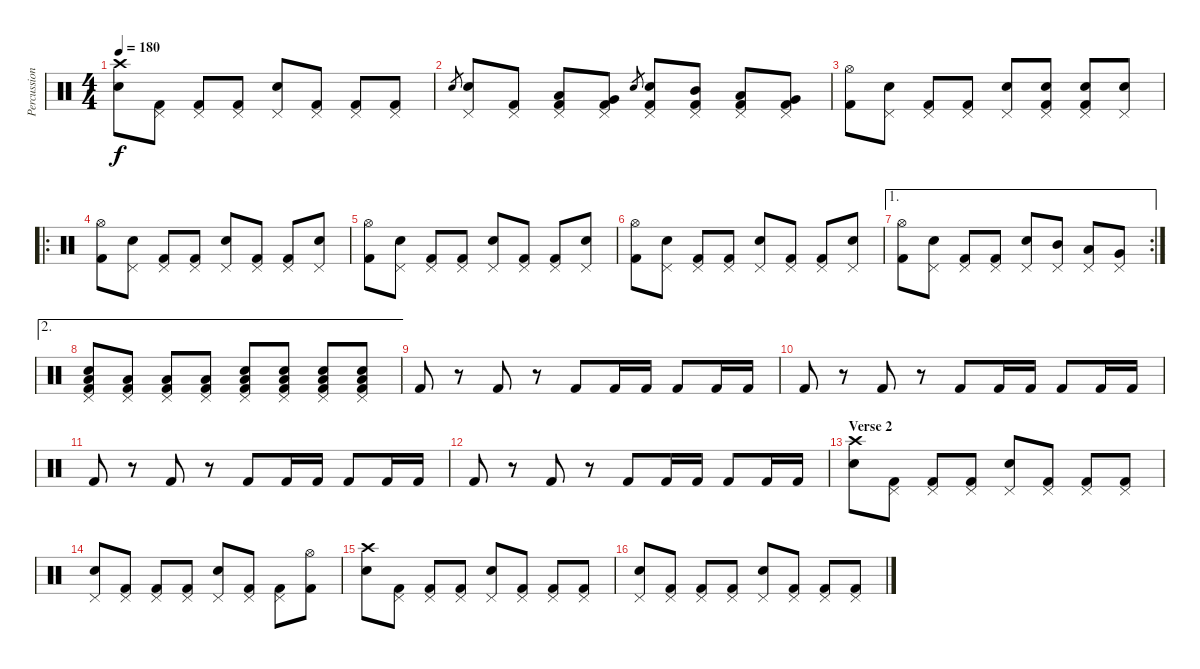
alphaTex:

\track ("Percussion" "Percussion") {instrument percussion}
\staff {score}
\articulation defaults
\ts (4 4)
\tempo 180
\clef neutral
\ks c
("Crash high (hit)" "Electric Snare (hit)").8{dy f} ("Pedal Hi-Hat (hit)" "Kick (hit) 2").8 ("Pedal Hi-Hat (hit)" "Kick (hit) 2").8 ("Pedal Hi-Hat (hit)" "Kick (hit) 2").8 ("Pedal Hi-Hat (hit)" "Electric Snare (hit)").8 ("Pedal Hi-Hat (hit)" "Kick (hit) 2").8 ("Pedal Hi-Hat (hit)" "Kick (hit) 2").8 ("Pedal Hi-Hat (hit)" "Kick (hit) 2").8 |
"Electric Snare (hit)".8{gr} ("Pedal Hi-Hat (hit)" "Electric Snare (hit)").8 ("Pedal Hi-Hat (hit)" "Kick (hit) 2").8 ("Pedal Hi-Hat (hit)" "Low Tom (hit)" "Kick (hit) 2").8 ("Pedal Hi-Hat (hit)" "Very Low Tom (hit)" "Kick (hit) 2").8 "Electric Snare (hit)".8{gr} ("Pedal Hi-Hat (hit)" "Electric Snare (hit)" "Kick (hit) 2").8 ("Pedal Hi-Hat (hit)" "Mid Tom (hit)" "Kick (hit) 2").8 ("Pedal Hi-Hat (hit)" "Low Tom (hit)" "Kick (hit) 2").8 ("Pedal Hi-Hat (hit)" "Very Low Tom (hit)" "Kick (hit) 2").8 |
("Hi-Hat (open)" "Kick (hit) 2").8 ("Pedal Hi-Hat (hit)" "Electric Snare (hit)").8 ("Pedal Hi-Hat (hit)" "Kick (hit) 2").8 ("Pedal Hi-Hat (hit)" "Kick (hit) 2").8 ("Pedal Hi-Hat (hit)" "Electric Snare (hit)").8 ("Pedal Hi-Hat (hit)" "Electric Snare (hit)" "Kick (hit) 2").8 ("Pedal Hi-Hat (hit)" "Electric Snare (hit)" "Kick (hit) 2").8 ("Pedal Hi-Hat (hit)" "Electric Snare (hit)").8 |
\ro
("Hi-Hat (open)" "Kick (hit) 2").8 ("Pedal Hi-Hat (hit)" "Electric Snare (hit)").8 ("Pedal Hi-Hat (hit)" "Kick (hit) 2").8 ("Pedal Hi-Hat (hit)" "Kick (hit) 2").8 ("Pedal Hi-Hat (hit)" "Electric Snare (hit)").8 ("Pedal Hi-Hat (hit)" "Kick (hit) 2").8 ("Pedal Hi-Hat (hit)" "Kick (hit) 2").8 ("Pedal Hi-Hat (hit)" "Electric Snare (hit)").8 |
("Hi-Hat (open)" "Kick (hit) 2").8 ("Pedal Hi-Hat (hit)" "Electric Snare (hit)").8 ("Pedal Hi-Hat (hit)" "Kick (hit) 2").8 ("Pedal Hi-Hat (hit)" "Kick (hit) 2").8 ("Pedal Hi-Hat (hit)" "Electric Snare (hit)").8 ("Pedal Hi-Hat (hit)" "Kick (hit) 2").8 ("Pedal Hi-Hat (hit)" "Kick (hit) 2").8 ("Pedal Hi-Hat (hit)" "Electric Snare (hit)").8 |
("Hi-Hat (open)" "Kick (hit) 2").8 ("Pedal Hi-Hat (hit)" "Electric Snare (hit)").8 ("Pedal Hi-Hat (hit)" "Kick (hit) 2").8 ("Pedal Hi-Hat (hit)" "Kick (hit) 2").8 ("Pedal Hi-Hat (hit)" "Electric Snare (hit)").8 ("Pedal Hi-Hat (hit)" "Kick (hit) 2").8 ("Pedal Hi-Hat (hit)" "Kick (hit) 2").8 ("Pedal Hi-Hat (hit)" "Electric Snare (hit)").8 |
\ae 1
\rc 2
("Hi-Hat (open)" "Kick (hit) 2").8 ("Pedal Hi-Hat (hit)" "Electric Snare (hit)").8 ("Pedal Hi-Hat (hit)" "Kick (hit) 2").8 ("Pedal Hi-Hat (hit)" "Kick (hit) 2").8 ("Pedal Hi-Hat (hit)" "Electric Snare (hit)").8 ("Pedal Hi-Hat (hit)" "Mid Tom (hit)").8 ("Pedal Hi-Hat (hit)" "Low Tom (hit)").8 ("Pedal Hi-Hat (hit)" "Very Low Tom (hit)").8 |
\ae 2
("Pedal Hi-Hat (hit)" "Low Tom (hit)" "Snare (hit) 2" "Kick (hit) 2").8 ("Pedal Hi-Hat (hit)" "Low Tom (hit)" "Kick (hit) 2").8 ("Pedal Hi-Hat (hit)" "Low Tom (hit)" "Kick (hit) 2").8 ("Pedal Hi-Hat (hit)" "Low Tom (hit)" "Kick (hit) 2").8 ("Pedal Hi-Hat (hit)" "Low Tom (hit)" "Snare (hit) 2" "Kick (hit) 2").8 ("Pedal Hi-Hat (hit)" "Low Tom (hit)" "Snare (hit) 2" "Kick (hit) 2").8 ("Pedal Hi-Hat (hit)" "Low Tom (hit)" "Snare (hit) 2" "Kick (hit) 2").8 ("Pedal Hi-Hat (hit)" "Low Tom (hit)" "Snare (hit) 2" "Kick (hit) 2").8 |
"Kick (hit) 2".8 r.8 "Kick (hit) 2".8 r.8 "Kick (hit) 2".8 "Kick (hit) 2".16 "Kick (hit) 2".16 "Kick (hit) 2".8 "Kick (hit) 2".16 "Kick (hit) 2".16 |
"Kick (hit) 2".8 r.8 "Kick (hit) 2".8 r.8 "Kick (hit) 2".8 "Kick (hit) 2".16 "Kick (hit) 2".16 "Kick (hit) 2".8 "Kick (hit) 2".16 "Kick (hit) 2".16 |
"Kick (hit) 2".8 r.8 "Kick (hit) 2".8 r.8 "Kick (hit) 2".8 "Kick (hit) 2".16 "Kick (hit) 2".16 "Kick (hit) 2".8 "Kick (hit) 2".16 "Kick (hit) 2".16 |
"Kick (hit) 2".8 r.8 "Kick (hit) 2".8 r.8 "Kick (hit) 2".8 "Kick (hit) 2".16 "Kick (hit) 2".16 "Kick (hit) 2".8 "Kick (hit) 2".16 "Kick (hit) 2".16 |
\section ("" "Verse 2")
("Crash high (hit)" "Electric Snare (hit)").8 ("Pedal Hi-Hat (hit)" "Kick (hit) 2").8 ("Pedal Hi-Hat (hit)" "Kick (hit) 2").8 ("Pedal Hi-Hat (hit)" "Kick (hit) 2").8 ("Pedal Hi-Hat (hit)" "Electric Snare (hit)").8 ("Pedal Hi-Hat (hit)" "Kick (hit) 2").8 ("Pedal Hi-Hat (hit)" "Kick (hit) 2").8 ("Pedal Hi-Hat (hit)" "Kick (hit) 2").8 |
("Pedal Hi-Hat (hit)" "Electric Snare (hit)").8 ("Pedal Hi-Hat (hit)" "Kick (hit) 2").8 ("Pedal Hi-Hat (hit)" "Kick (hit) 2").8 ("Pedal Hi-Hat (hit)" "Kick (hit) 2").8 ("Pedal Hi-Hat (hit)" "Electric Snare (hit)").8 ("Pedal Hi-Hat (hit)" "Kick (hit) 2").8 ("Pedal Hi-Hat (hit)" "Kick (hit) 2").8 ("Hi-Hat (open)" "Kick (hit) 2").8 |
("Crash high (hit)" "Electric Snare (hit)").8 ("Pedal Hi-Hat (hit)" "Kick (hit) 2").8 ("Pedal Hi-Hat (hit)" "Kick (hit) 2").8 ("Pedal Hi-Hat (hit)" "Kick (hit) 2").8 ("Pedal Hi-Hat (hit)" "Electric Snare (hit)").8 ("Pedal Hi-Hat (hit)" "Kick (hit) 2").8 ("Pedal Hi-Hat (hit)" "Kick (hit) 2").8 ("Pedal Hi-Hat (hit)" "Kick (hit) 2").8 |
("Pedal Hi-Hat (hit)" "Electric Snare (hit)").8 ("Pedal Hi-Hat (hit)" "Kick (hit) 2").8 ("Pedal Hi-Hat (hit)" "Kick (hit) 2").8 ("Pedal Hi-Hat (hit)" "Kick (hit) 2").8 ("Pedal Hi-Hat (hit)" "Electric Snare (hit)").8 ("Pedal Hi-Hat (hit)" "Kick (hit) 2").8 ("Pedal Hi-Hat (hit)" "Kick (hit) 2").8 ("Pedal Hi-Hat (hit)" "Kick (hit) 2").8
